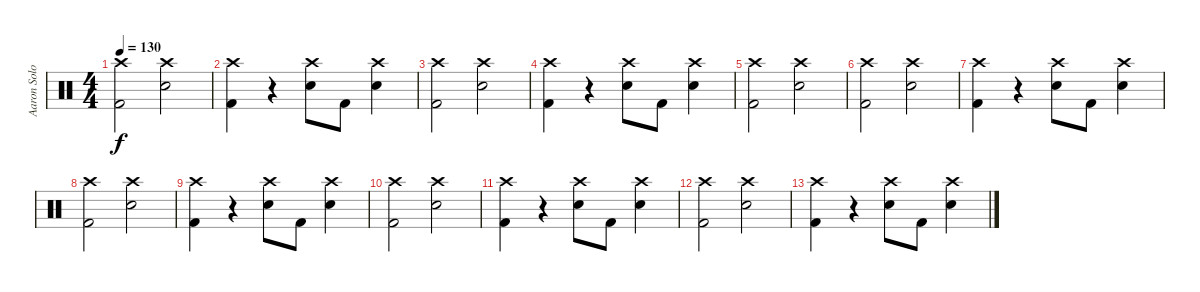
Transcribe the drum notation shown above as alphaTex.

\track ("Aaron Solowoniuk" "Aaron Solo") {instrument percussion}
\staff {score}
\articulation defaults
\ts (4 4)
\tempo 130
\clef neutral
\ks c
("Crash high (hit)" "Kick (hit) 2").2{dy f} ("Crash high (hit)" "Electric Snare (hit)").2 |
("Crash high (hit)" "Kick (hit) 2").4 r.4 ("Crash high (hit)" "Electric Snare (hit)").8 "Kick (hit) 2".8 ("Crash high (hit)" "Electric Snare (hit)").4 |
("Crash high (hit)" "Kick (hit) 2").2 ("Crash high (hit)" "Electric Snare (hit)").2 |
("Crash high (hit)" "Kick (hit) 2").4 r.4 ("Crash high (hit)" "Electric Snare (hit)").8 "Kick (hit) 2".8 ("Crash high (hit)" "Electric Snare (hit)").4 |
("Crash high (hit)" "Kick (hit) 2").2 ("Crash high (hit)" "Electric Snare (hit)").2 |
("Crash high (hit)" "Kick (hit) 2").2 ("Crash high (hit)" "Electric Snare (hit)").2 |
("Crash high (hit)" "Kick (hit) 2").4 r.4 ("Crash high (hit)" "Electric Snare (hit)").8 "Kick (hit) 2".8 ("Crash high (hit)" "Electric Snare (hit)").4 |
("Crash high (hit)" "Kick (hit) 2").2 ("Crash high (hit)" "Electric Snare (hit)").2 |
("Crash high (hit)" "Kick (hit) 2").4 r.4 ("Crash high (hit)" "Electric Snare (hit)").8 "Kick (hit) 2".8 ("Crash high (hit)" "Electric Snare (hit)").4 |
("Crash high (hit)" "Kick (hit) 2").2 ("Crash high (hit)" "Electric Snare (hit)").2 |
("Crash high (hit)" "Kick (hit) 2").4 r.4 ("Crash high (hit)" "Electric Snare (hit)").8 "Kick (hit) 2".8 ("Crash high (hit)" "Electric Snare (hit)").4 |
("Crash high (hit)" "Kick (hit) 2").2 ("Crash high (hit)" "Electric Snare (hit)").2 |
("Crash high (hit)" "Kick (hit) 2").4 r.4 ("Crash high (hit)" "Electric Snare (hit)").8 "Kick (hit) 2".8 ("Crash high (hit)" "Electric Snare (hit)").4
